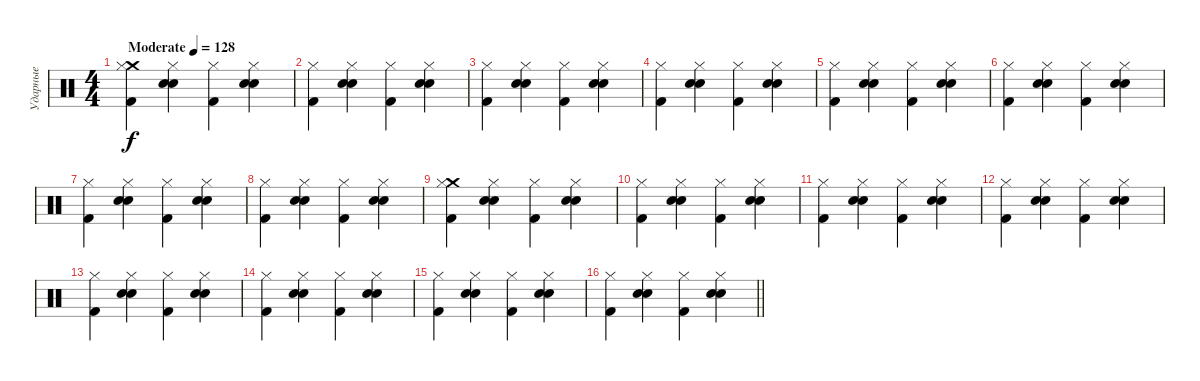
\track ("Ударные" "Ударные") {instrument percussion}
\staff {score}
\articulation defaults
\ts (4 4)
\tempo (128 "Moderate")
\clef neutral
\ks c
("Crash medium (hit)" "Hi-Hat (closed)" "Kick (hit) 2").4{dy f} ("Electric Snare (hit)" "Snare (hit) 2" "Hi-Hat (closed)").4 ("Hi-Hat (closed)" "Kick (hit) 2").4 ("Electric Snare (hit)" "Snare (hit) 2" "Hi-Hat (closed)").4 |
("Hi-Hat (closed)" "Kick (hit) 2").4 ("Electric Snare (hit)" "Snare (hit) 2" "Hi-Hat (closed)").4 ("Hi-Hat (closed)" "Kick (hit) 2").4 ("Electric Snare (hit)" "Snare (hit) 2" "Hi-Hat (closed)").4 |
("Hi-Hat (closed)" "Kick (hit) 2").4 ("Electric Snare (hit)" "Snare (hit) 2" "Hi-Hat (closed)").4 ("Hi-Hat (closed)" "Kick (hit) 2").4 ("Electric Snare (hit)" "Snare (hit) 2" "Hi-Hat (closed)").4 |
("Hi-Hat (closed)" "Kick (hit) 2").4 ("Electric Snare (hit)" "Snare (hit) 2" "Hi-Hat (closed)").4 ("Hi-Hat (closed)" "Kick (hit) 2").4 ("Electric Snare (hit)" "Snare (hit) 2" "Hi-Hat (closed)").4 |
("Hi-Hat (closed)" "Kick (hit) 2").4 ("Electric Snare (hit)" "Snare (hit) 2" "Hi-Hat (closed)").4 ("Hi-Hat (closed)" "Kick (hit) 2").4 ("Electric Snare (hit)" "Snare (hit) 2" "Hi-Hat (closed)").4 |
("Hi-Hat (closed)" "Kick (hit) 2").4 ("Electric Snare (hit)" "Snare (hit) 2" "Hi-Hat (closed)").4 ("Hi-Hat (closed)" "Kick (hit) 2").4 ("Electric Snare (hit)" "Snare (hit) 2" "Hi-Hat (closed)").4 |
("Hi-Hat (closed)" "Kick (hit) 2").4 ("Electric Snare (hit)" "Snare (hit) 2" "Hi-Hat (closed)").4 ("Hi-Hat (closed)" "Kick (hit) 2").4 ("Electric Snare (hit)" "Snare (hit) 2" "Hi-Hat (closed)").4 |
("Hi-Hat (closed)" "Kick (hit) 2").4 ("Electric Snare (hit)" "Snare (hit) 2" "Hi-Hat (closed)").4 ("Hi-Hat (closed)" "Kick (hit) 2").4 ("Electric Snare (hit)" "Snare (hit) 2" "Hi-Hat (closed)").4 |
("Crash medium (hit)" "Hi-Hat (closed)" "Kick (hit) 2").4 ("Electric Snare (hit)" "Snare (hit) 2" "Hi-Hat (closed)").4 ("Hi-Hat (closed)" "Kick (hit) 2").4 ("Electric Snare (hit)" "Snare (hit) 2" "Hi-Hat (closed)").4 |
("Hi-Hat (closed)" "Kick (hit) 2").4 ("Electric Snare (hit)" "Snare (hit) 2" "Hi-Hat (closed)").4 ("Hi-Hat (closed)" "Kick (hit) 2").4 ("Electric Snare (hit)" "Snare (hit) 2" "Hi-Hat (closed)").4 |
("Hi-Hat (closed)" "Kick (hit) 2").4 ("Electric Snare (hit)" "Snare (hit) 2" "Hi-Hat (closed)").4 ("Hi-Hat (closed)" "Kick (hit) 2").4 ("Electric Snare (hit)" "Snare (hit) 2" "Hi-Hat (closed)").4 |
("Hi-Hat (closed)" "Kick (hit) 2").4 ("Electric Snare (hit)" "Snare (hit) 2" "Hi-Hat (closed)").4 ("Hi-Hat (closed)" "Kick (hit) 2").4 ("Electric Snare (hit)" "Snare (hit) 2" "Hi-Hat (closed)").4 |
("Hi-Hat (closed)" "Kick (hit) 2").4 ("Electric Snare (hit)" "Snare (hit) 2" "Hi-Hat (closed)").4 ("Hi-Hat (closed)" "Kick (hit) 2").4 ("Electric Snare (hit)" "Snare (hit) 2" "Hi-Hat (closed)").4 |
("Hi-Hat (closed)" "Kick (hit) 2").4 ("Electric Snare (hit)" "Snare (hit) 2" "Hi-Hat (closed)").4 ("Hi-Hat (closed)" "Kick (hit) 2").4 ("Electric Snare (hit)" "Snare (hit) 2" "Hi-Hat (closed)").4 |
("Hi-Hat (closed)" "Kick (hit) 2").4 ("Electric Snare (hit)" "Snare (hit) 2" "Hi-Hat (closed)").4 ("Hi-Hat (closed)" "Kick (hit) 2").4 ("Electric Snare (hit)" "Snare (hit) 2" "Hi-Hat (closed)").4 |
\barLineRight lightlight
("Hi-Hat (closed)" "Kick (hit) 2").4 ("Electric Snare (hit)" "Snare (hit) 2" "Hi-Hat (closed)").4 ("Hi-Hat (closed)" "Kick (hit) 2").4 ("Electric Snare (hit)" "Snare (hit) 2" "Hi-Hat (closed)").4
